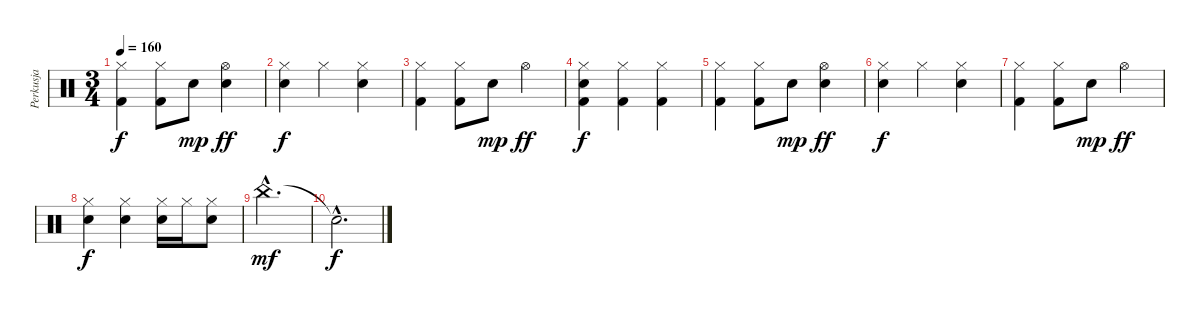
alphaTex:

\track ("Perkusja" "Perkusja") {instrument percussion}
\staff {score}
\articulation defaults
\ts (3 4)
\tempo 160
\clef neutral
\ks c
("Hi-Hat (closed)" "Kick (hit) 2").4{dy f} ("Hi-Hat (closed)" "Kick (hit) 2").8 "Snare (hit) 2".8{dy mp} ("Hi-Hat (open)" "Hand Clap (hit)").4{dy ff} |
("Hi-Hat (closed)" "Snare (hit) 2").4{dy f} "Hi-Hat (closed)".4 ("Hi-Hat (closed)" "Hand Clap (hit)").4 |
("Hi-Hat (closed)" "Kick (hit) 2").4 ("Hi-Hat (closed)" "Kick (hit) 2").8 "Snare (hit) 2".8{dy mp} "Hi-Hat (open)".4{dy ff} |
("Hi-Hat (closed)" "Snare (hit) 2" "Kick (hit) 2").4{dy f} ("Hi-Hat (closed)" "Kick (hit) 2").4 ("Hi-Hat (closed)" "Kick (hit) 2").4 |
("Hi-Hat (closed)" "Kick (hit) 2").4 ("Hi-Hat (closed)" "Kick (hit) 2").8 "Snare (hit) 2".8{dy mp} ("Hi-Hat (open)" "Hand Clap (hit)").4{dy ff} |
("Hi-Hat (closed)" "Snare (hit) 2").4{dy f} "Hi-Hat (closed)".4 ("Hi-Hat (closed)" "Hand Clap (hit)").4 |
("Hi-Hat (closed)" "Kick (hit) 2").4 ("Hi-Hat (closed)" "Kick (hit) 2").8 "Snare (hit) 2".8{dy mp} "Hi-Hat (open)".4{dy ff} |
("Hi-Hat (closed)" "Snare (hit) 2").4{dy f} ("Hi-Hat (closed)" "Snare (hit) 2").4 ("Hi-Hat (closed)" "Snare (hit) 2").16 "Hi-Hat (closed)".16 ("Hi-Hat (closed)" "Snare (hit) 2").8 |
"China (hit)"{hac}.2{d dy mf} |
"Snare (hit)"{hac t}.2{d dy f}
